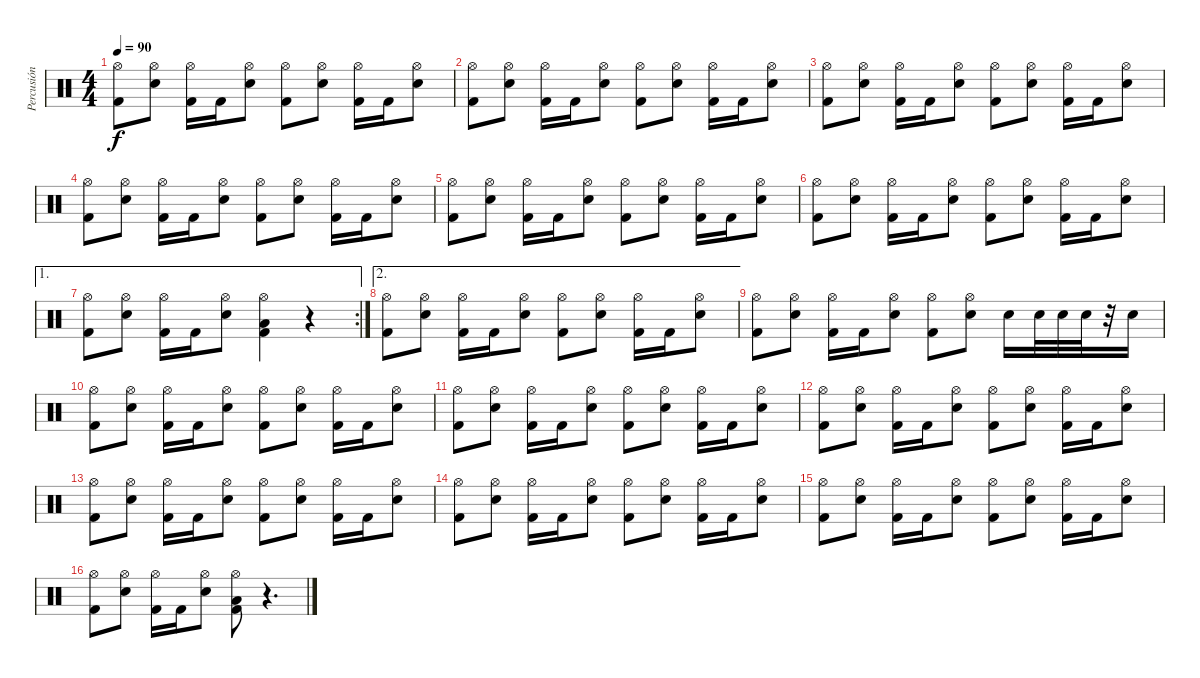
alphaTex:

\track ("Percusión" "Percusión") {instrument percussion}
\staff {score}
\articulation defaults
\ts (4 4)
\tempo 90
\clef neutral
\ks c
("Hi-Hat (open)" "Kick (hit) 2").8{dy f} ("Hi-Hat (open)" "Snare (hit) 2").8 ("Hi-Hat (open)" "Kick (hit) 2").16 "Kick (hit) 2".16 ("Hi-Hat (open)" "Snare (hit) 2").8 ("Hi-Hat (open)" "Kick (hit) 2").8 ("Hi-Hat (open)" "Snare (hit) 2").8 ("Hi-Hat (open)" "Kick (hit) 2").16 "Kick (hit) 2".16 ("Hi-Hat (open)" "Snare (hit) 2").8 |
("Hi-Hat (open)" "Kick (hit) 2").8 ("Hi-Hat (open)" "Snare (hit) 2").8 ("Hi-Hat (open)" "Kick (hit) 2").16 "Kick (hit) 2".16 ("Hi-Hat (open)" "Snare (hit) 2").8 ("Hi-Hat (open)" "Kick (hit) 2").8 ("Hi-Hat (open)" "Snare (hit) 2").8 ("Hi-Hat (open)" "Kick (hit) 2").16 "Kick (hit) 2".16 ("Hi-Hat (open)" "Snare (hit) 2").8 |
("Hi-Hat (open)" "Kick (hit) 2").8 ("Hi-Hat (open)" "Snare (hit) 2").8 ("Hi-Hat (open)" "Kick (hit) 2").16 "Kick (hit) 2".16 ("Hi-Hat (open)" "Snare (hit) 2").8 ("Hi-Hat (open)" "Kick (hit) 2").8 ("Hi-Hat (open)" "Snare (hit) 2").8 ("Hi-Hat (open)" "Kick (hit) 2").16 "Kick (hit) 2".16 ("Hi-Hat (open)" "Snare (hit) 2").8 |
("Hi-Hat (open)" "Kick (hit) 2").8 ("Hi-Hat (open)" "Snare (hit) 2").8 ("Hi-Hat (open)" "Kick (hit) 2").16 "Kick (hit) 2".16 ("Hi-Hat (open)" "Snare (hit) 2").8 ("Hi-Hat (open)" "Kick (hit) 2").8 ("Hi-Hat (open)" "Snare (hit) 2").8 ("Hi-Hat (open)" "Kick (hit) 2").16 "Kick (hit) 2".16 ("Hi-Hat (open)" "Snare (hit) 2").8 |
("Hi-Hat (open)" "Kick (hit) 2").8 ("Hi-Hat (open)" "Snare (hit) 2").8 ("Hi-Hat (open)" "Kick (hit) 2").16 "Kick (hit) 2".16 ("Hi-Hat (open)" "Snare (hit) 2").8 ("Hi-Hat (open)" "Kick (hit) 2").8 ("Hi-Hat (open)" "Snare (hit) 2").8 ("Hi-Hat (open)" "Kick (hit) 2").16 "Kick (hit) 2".16 ("Hi-Hat (open)" "Snare (hit) 2").8 |
("Hi-Hat (open)" "Kick (hit) 2").8 ("Hi-Hat (open)" "Snare (hit) 2").8 ("Hi-Hat (open)" "Kick (hit) 2").16 "Kick (hit) 2".16 ("Hi-Hat (open)" "Snare (hit) 2").8 ("Hi-Hat (open)" "Kick (hit) 2").8 ("Hi-Hat (open)" "Snare (hit) 2").8 ("Hi-Hat (open)" "Kick (hit) 2").16 "Kick (hit) 2".16 ("Hi-Hat (open)" "Snare (hit) 2").8 |
\ae 1
\rc 2
("Hi-Hat (open)" "Kick (hit) 2").8 ("Hi-Hat (open)" "Snare (hit) 2").8 ("Hi-Hat (open)" "Kick (hit) 2").16 "Kick (hit) 2".16 ("Hi-Hat (open)" "Snare (hit) 2").8 ("Hi-Hat (open)" "Low Floor Tom (hit)" "Kick (hit) 2").4 r.4 |
\ae 2
("Hi-Hat (open)" "Kick (hit) 2").8 ("Hi-Hat (open)" "Snare (hit) 2").8 ("Hi-Hat (open)" "Kick (hit) 2").16 "Kick (hit) 2".16 ("Hi-Hat (open)" "Snare (hit) 2").8 ("Hi-Hat (open)" "Kick (hit) 2").8 ("Hi-Hat (open)" "Snare (hit) 2").8 ("Hi-Hat (open)" "Kick (hit) 2").16 "Kick (hit) 2".16 ("Hi-Hat (open)" "Snare (hit) 2").8 |
("Hi-Hat (open)" "Kick (hit) 2").8 ("Hi-Hat (open)" "Snare (hit) 2").8 ("Hi-Hat (open)" "Kick (hit) 2").16 "Kick (hit) 2".16 ("Hi-Hat (open)" "Snare (hit) 2").8 ("Hi-Hat (open)" "Kick (hit) 2").8 ("Hi-Hat (open)" "Snare (hit) 2").8 "Snare (hit) 2".16 "Snare (hit) 2".32 "Snare (hit) 2".32 "Snare (hit) 2".32 r.32 "Snare (hit) 2".16 |
("Hi-Hat (open)" "Kick (hit) 2").8 ("Hi-Hat (open)" "Snare (hit) 2").8 ("Hi-Hat (open)" "Kick (hit) 2").16 "Kick (hit) 2".16 ("Hi-Hat (open)" "Snare (hit) 2").8 ("Hi-Hat (open)" "Kick (hit) 2").8 ("Hi-Hat (open)" "Snare (hit) 2").8 ("Hi-Hat (open)" "Kick (hit) 2").16 "Kick (hit) 2".16 ("Hi-Hat (open)" "Snare (hit) 2").8 |
("Hi-Hat (open)" "Kick (hit) 2").8 ("Hi-Hat (open)" "Snare (hit) 2").8 ("Hi-Hat (open)" "Kick (hit) 2").16 "Kick (hit) 2".16 ("Hi-Hat (open)" "Snare (hit) 2").8 ("Hi-Hat (open)" "Kick (hit) 2").8 ("Hi-Hat (open)" "Snare (hit) 2").8 ("Hi-Hat (open)" "Kick (hit) 2").16 "Kick (hit) 2".16 ("Hi-Hat (open)" "Snare (hit) 2").8 |
("Hi-Hat (open)" "Kick (hit) 2").8 ("Hi-Hat (open)" "Snare (hit) 2").8 ("Hi-Hat (open)" "Kick (hit) 2").16 "Kick (hit) 2".16 ("Hi-Hat (open)" "Snare (hit) 2").8 ("Hi-Hat (open)" "Kick (hit) 2").8 ("Hi-Hat (open)" "Snare (hit) 2").8 ("Hi-Hat (open)" "Kick (hit) 2").16 "Kick (hit) 2".16 ("Hi-Hat (open)" "Snare (hit) 2").8 |
("Hi-Hat (open)" "Kick (hit) 2").8 ("Hi-Hat (open)" "Snare (hit) 2").8 ("Hi-Hat (open)" "Kick (hit) 2").16 "Kick (hit) 2".16 ("Hi-Hat (open)" "Snare (hit) 2").8 ("Hi-Hat (open)" "Kick (hit) 2").8 ("Hi-Hat (open)" "Snare (hit) 2").8 ("Hi-Hat (open)" "Kick (hit) 2").16 "Kick (hit) 2".16 ("Hi-Hat (open)" "Snare (hit) 2").8 |
("Hi-Hat (open)" "Kick (hit) 2").8 ("Hi-Hat (open)" "Snare (hit) 2").8 ("Hi-Hat (open)" "Kick (hit) 2").16 "Kick (hit) 2".16 ("Hi-Hat (open)" "Snare (hit) 2").8 ("Hi-Hat (open)" "Kick (hit) 2").8 ("Hi-Hat (open)" "Snare (hit) 2").8 ("Hi-Hat (open)" "Kick (hit) 2").16 "Kick (hit) 2".16 ("Hi-Hat (open)" "Snare (hit) 2").8 |
("Hi-Hat (open)" "Kick (hit) 2").8 ("Hi-Hat (open)" "Snare (hit) 2").8 ("Hi-Hat (open)" "Kick (hit) 2").16 "Kick (hit) 2".16 ("Hi-Hat (open)" "Snare (hit) 2").8 ("Hi-Hat (open)" "Kick (hit) 2").8 ("Hi-Hat (open)" "Snare (hit) 2").8 ("Hi-Hat (open)" "Kick (hit) 2").16 "Kick (hit) 2".16 ("Hi-Hat (open)" "Snare (hit) 2").8 |
("Hi-Hat (open)" "Kick (hit) 2").8 ("Hi-Hat (open)" "Snare (hit) 2").8 ("Hi-Hat (open)" "Kick (hit) 2").16 "Kick (hit) 2".16 ("Hi-Hat (open)" "Snare (hit) 2").8 ("Hi-Hat (open)" "Low Floor Tom (hit)" "Kick (hit) 2").8 r.4{d}
